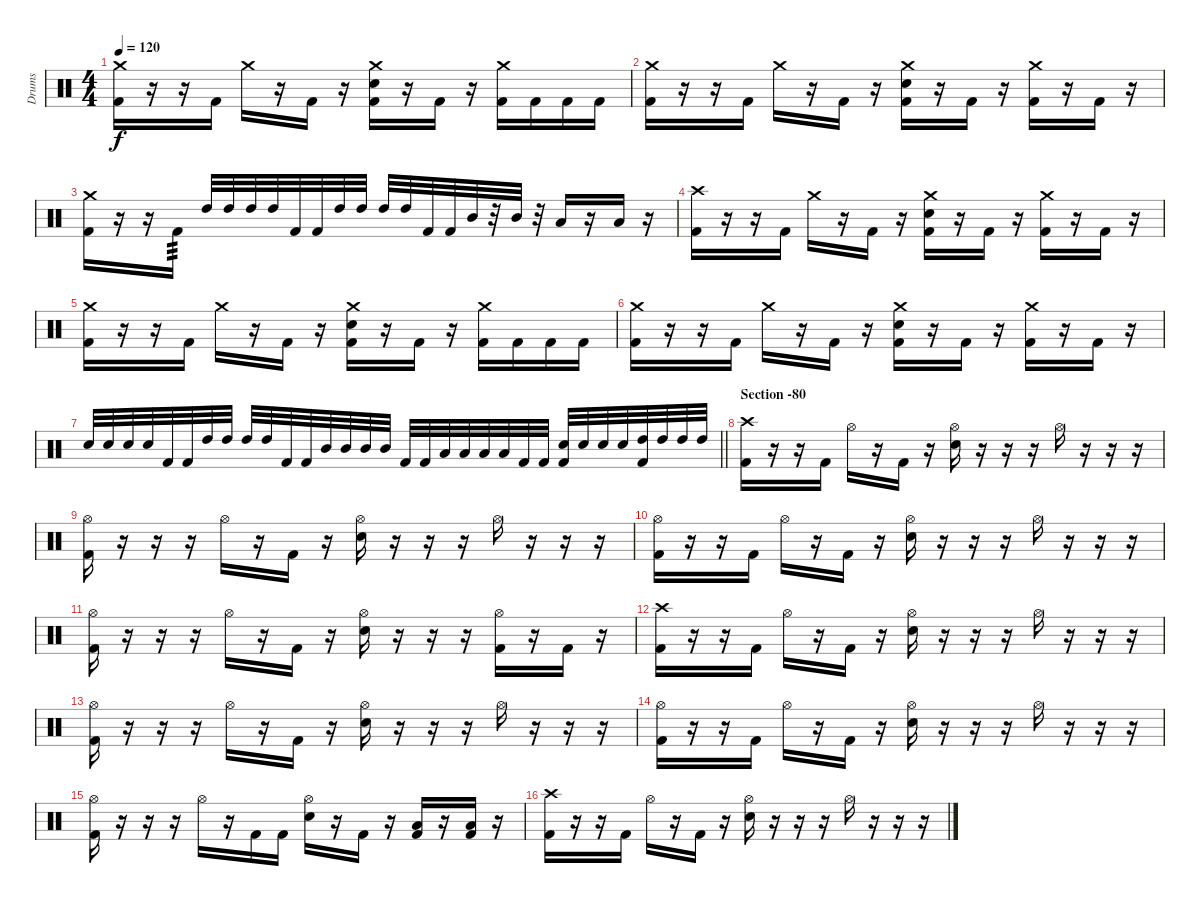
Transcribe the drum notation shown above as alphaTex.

\track ("Drums" "Drums") {instrument percussion}
\staff {score}
\articulation defaults
\ts (4 4)
\tempo 120
\clef neutral
\ks c
("Crash medium (hit)" "Kick (hit) 2").16{dy f} r.16 r.16 "Kick (hit) 2".16 "Crash medium (hit)".16 r.16 "Kick (hit) 2".16 r.16 ("Crash medium (hit)" "Snare (hit) 2" "Kick (hit) 2").16 r.16 "Kick (hit) 2".16 r.16 ("Crash medium (hit)" "Kick (hit) 2").16 "Kick (hit) 2".16 "Kick (hit) 2".16 "Kick (hit) 2".16 |
("Crash medium (hit)" "Kick (hit) 2").16 r.16 r.16 "Kick (hit) 2".16 "Crash medium (hit)".16 r.16 "Kick (hit) 2".16 r.16 ("Crash medium (hit)" "Snare (hit) 2" "Kick (hit) 2").16 r.16 "Kick (hit) 2".16 r.16 ("Crash medium (hit)" "Kick (hit) 2").16 r.16 "Kick (hit) 2".16 r.16 |
("Crash medium (hit)" "Kick (hit) 2").16 r.16 r.16 "Kick (hit) 2".16{tp 3} "High Tom (hit)".32 "High Tom (hit)".32 "High Tom (hit)".32 "High Tom (hit)".32 "Kick (hit) 2".32 "Kick (hit) 2".32 "High Tom (hit)".32 "High Tom (hit)".32 "High Tom (hit)".32 "High Tom (hit)".32 "Kick (hit) 2".32 "Kick (hit) 2".32 "Mid Tom (hit)".32 r.32 "Mid Tom (hit)".32 r.32 "Low Tom (hit)".16 r.16 "Low Tom (hit)".16 r.16 |
("Crash high (hit)" "Kick (hit) 2").16 r.16 r.16 "Kick (hit) 2".16 "Crash medium (hit)".16 r.16 "Kick (hit) 2".16 r.16 ("Crash medium (hit)" "Snare (hit) 2" "Kick (hit) 2").16 r.16 "Kick (hit) 2".16 r.16 ("Crash medium (hit)" "Kick (hit) 2").16 r.16 "Kick (hit) 2".16 r.16 |
("Crash medium (hit)" "Kick (hit) 2").16 r.16 r.16 "Kick (hit) 2".16 "Crash medium (hit)".16 r.16 "Kick (hit) 2".16 r.16 ("Crash medium (hit)" "Snare (hit) 2" "Kick (hit) 2").16 r.16 "Kick (hit) 2".16 r.16 ("Crash medium (hit)" "Kick (hit) 2").16 "Kick (hit) 2".16 "Kick (hit) 2".16 "Kick (hit) 2".16 |
("Crash medium (hit)" "Kick (hit) 2").16 r.16 r.16 "Kick (hit) 2".16 "Crash medium (hit)".16 r.16 "Kick (hit) 2".16 r.16 ("Crash medium (hit)" "Snare (hit) 2" "Kick (hit) 2").16 r.16 "Kick (hit) 2".16 r.16 ("Crash medium (hit)" "Kick (hit) 2").16 r.16 "Kick (hit) 2".16 r.16 |
\barLineRight lightlight "Snare (hit) 2".32 "Snare (hit) 2".32 "Snare (hit) 2".32 "Snare (hit) 2".32 "Kick (hit) 2".32 "Kick (hit) 2".32 "High Tom (hit)".32 "High Tom (hit)".32 "High Tom (hit)".32 "High Tom (hit)".32 "Kick (hit) 2".32 "Kick (hit) 2".32 "Mid Tom (hit)".32 "Mid Tom (hit)".32 "Mid Tom (hit)".32 "Mid Tom (hit)".32 "Kick (hit) 2".32 "Kick (hit) 2".32 "Low Tom (hit)".32 "Low Tom (hit)".32 "Low Tom (hit)".32 "Low Tom (hit)".32 "Kick (hit) 2".32 "Kick (hit) 2".32
("Snare (hit) 2" "Kick (hit) 2").32 "Snare (hit) 2".32 "Snare (hit) 2".32 "Snare (hit) 2".32 ("High Tom (hit)" "Kick (hit) 2").32 "High Tom (hit)".32 "High Tom (hit)".32 "High Tom (hit)".32 |
\section ("" "Section -80")
("Crash high (hit)" "Kick (hit) 2").16 r.16 r.16 "Kick (hit) 2".16 "Hi-Hat (open)".16 r.16 "Kick (hit) 2".16 r.16 ("Hi-Hat (open)" "Snare (hit) 2").16 r.16 r.16 r.16 "Hi-Hat (open)".16 r.16 r.16 r.16 |
("Hi-Hat (open)" "Kick (hit) 2").16 r.16 r.16 r.16 "Hi-Hat (open)".16 r.16 "Kick (hit) 2".16 r.16 ("Hi-Hat (open)" "Snare (hit) 2").16 r.16 r.16 r.16 "Hi-Hat (open)".16 r.16 r.16 r.16 |
("Hi-Hat (open)" "Kick (hit) 2").16 r.16 r.16 "Kick (hit) 2".16 "Hi-Hat (open)".16 r.16 "Kick (hit) 2".16 r.16 ("Hi-Hat (open)" "Snare (hit) 2").16 r.16 r.16 r.16 "Hi-Hat (open)".16 r.16 r.16 r.16 |
("Hi-Hat (open)" "Kick (hit) 2").16 r.16 r.16 r.16 "Hi-Hat (open)".16 r.16 "Kick (hit) 2".16 r.16 ("Hi-Hat (open)" "Snare (hit) 2").16 r.16 r.16 r.16 ("Hi-Hat (open)" "Kick (hit) 2").16 r.16 "Kick (hit) 2".16 r.16 |
("Crash high (hit)" "Kick (hit) 2").16 r.16 r.16 "Kick (hit) 2".16 "Hi-Hat (open)".16 r.16 "Kick (hit) 2".16 r.16 ("Hi-Hat (open)" "Snare (hit) 2").16 r.16 r.16 r.16 "Hi-Hat (open)".16 r.16 r.16 r.16 |
("Hi-Hat (open)" "Kick (hit) 2").16 r.16 r.16 r.16 "Hi-Hat (open)".16 r.16 "Kick (hit) 2".16 r.16 ("Hi-Hat (open)" "Snare (hit) 2").16 r.16 r.16 r.16 "Hi-Hat (open)".16 r.16 r.16 r.16 |
("Hi-Hat (open)" "Kick (hit) 2").16 r.16 r.16 "Kick (hit) 2".16 "Hi-Hat (open)".16 r.16 "Kick (hit) 2".16 r.16 ("Hi-Hat (open)" "Snare (hit) 2").16 r.16 r.16 r.16 "Hi-Hat (open)".16 r.16 r.16 r.16 |
("Hi-Hat (open)" "Kick (hit) 2").16 r.16 r.16 r.16 "Hi-Hat (open)".16 r.16 "Kick (hit) 2".16 "Kick (hit) 2".16 ("Hi-Hat (open)" "Snare (hit) 2").16 r.16 "Kick (hit) 2".16 r.16 ("Low Tom (hit)" "Kick (hit) 2").16 r.16 ("Low Tom (hit)" "Kick (hit) 2").16 r.16 |
("Crash high (hit)" "Kick (hit) 2").16 r.16 r.16 "Kick (hit) 2".16 "Hi-Hat (open)".16 r.16 "Kick (hit) 2".16 r.16 ("Hi-Hat (open)" "Snare (hit) 2").16 r.16 r.16 r.16 "Hi-Hat (open)".16 r.16 r.16 r.16
